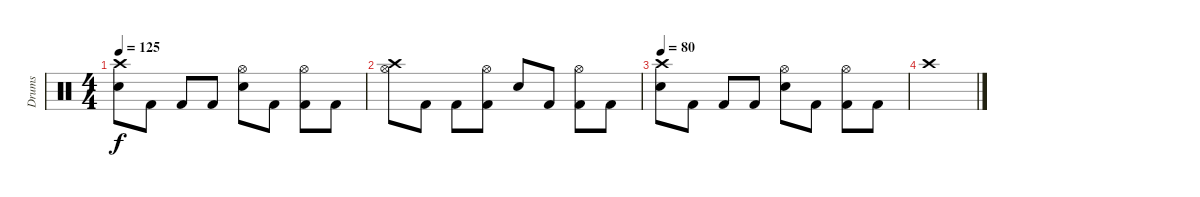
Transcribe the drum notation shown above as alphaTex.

\track ("Drums" "Drums") {instrument percussion}
\staff {score}
\articulation defaults
\ts (4 4)
\tempo 125
\clef neutral
\ks c
("Snare (hit) 2" "Crash high (hit)").8{dy f} "Kick (hit) 2".8 "Kick (hit) 2".8 "Kick (hit) 2".8 ("Hi-Hat (open)" "Snare (hit) 2").8 "Kick (hit) 2".8 ("Hi-Hat (open)" "Kick (hit) 2").8 "Kick (hit) 2".8 |
("Hi-Hat (open)" "Crash high (hit)").8 "Kick (hit) 2".8 "Kick (hit) 2".8 ("Hi-Hat (open)" "Kick (hit) 2").8 "Snare (hit) 2".8 "Kick (hit) 2".8 ("Hi-Hat (open)" "Kick (hit) 2").8 "Kick (hit) 2".8 |
\tempo 80
("Snare (hit) 2" "Crash high (hit)").8 "Kick (hit) 2".8 "Kick (hit) 2".8 "Kick (hit) 2".8 ("Hi-Hat (open)" "Snare (hit) 2").8 "Kick (hit) 2".8 ("Hi-Hat (open)" "Kick (hit) 2").8 "Kick (hit) 2".8 |
"Crash high (hit)".1
